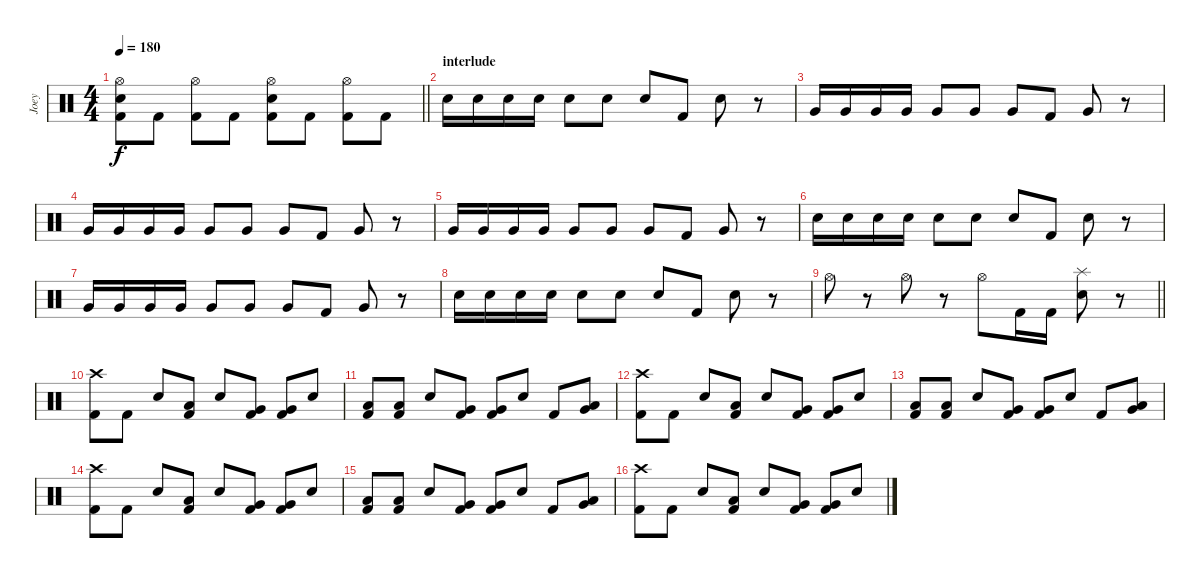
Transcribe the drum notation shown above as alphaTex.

\track ("Joey" "Joey") {instrument percussion}
\staff {score}
\articulation defaults
\ts (4 4)
\tempo 180
\clef neutral
\barLineRight lightlight
\ks c
("Hi-Hat (open)" "Electric Snare (hit)" "Kick (hit) 2").8{dy f} "Kick (hit) 2".8 ("Hi-Hat (open)" "Kick (hit) 2").8 "Kick (hit) 2".8 ("Hi-Hat (open)" "Electric Snare (hit)" "Kick (hit) 2").8 "Kick (hit) 2".8 ("Hi-Hat (open)" "Kick (hit) 2").8 "Kick (hit) 2".8 |
\section ("" "interlude")
"Electric Snare (hit)".16 "Electric Snare (hit)".16 "Electric Snare (hit)".16 "Electric Snare (hit)".16 "Electric Snare (hit)".8 "Electric Snare (hit)".8 "Electric Snare (hit)".8 "Kick (hit) 2".8 "Electric Snare (hit)".8 r.8 |
"Very Low Tom (hit)".16 "Very Low Tom (hit)".16 "Very Low Tom (hit)".16 "Very Low Tom (hit)".16 "Very Low Tom (hit)".8 "Very Low Tom (hit)".8 "Very Low Tom (hit)".8 "Kick (hit) 2".8 "Very Low Tom (hit)".8 r.8 |
"Very Low Tom (hit)".16 "Very Low Tom (hit)".16 "Very Low Tom (hit)".16 "Very Low Tom (hit)".16 "Very Low Tom (hit)".8 "Very Low Tom (hit)".8 "Very Low Tom (hit)".8 "Kick (hit) 2".8 "Very Low Tom (hit)".8 r.8 |
"Very Low Tom (hit)".16 "Very Low Tom (hit)".16 "Very Low Tom (hit)".16 "Very Low Tom (hit)".16 "Very Low Tom (hit)".8 "Very Low Tom (hit)".8 "Very Low Tom (hit)".8 "Kick (hit) 2".8 "Very Low Tom (hit)".8 r.8 |
"Electric Snare (hit)".16 "Electric Snare (hit)".16 "Electric Snare (hit)".16 "Electric Snare (hit)".16 "Electric Snare (hit)".8 "Electric Snare (hit)".8 "Electric Snare (hit)".8 "Kick (hit) 2".8 "Electric Snare (hit)".8 r.8 |
"Very Low Tom (hit)".16 "Very Low Tom (hit)".16 "Very Low Tom (hit)".16 "Very Low Tom (hit)".16 "Very Low Tom (hit)".8 "Very Low Tom (hit)".8 "Very Low Tom (hit)".8 "Kick (hit) 2".8 "Very Low Tom (hit)".8 r.8 |
"Electric Snare (hit)".16 "Electric Snare (hit)".16 "Electric Snare (hit)".16 "Electric Snare (hit)".16 "Electric Snare (hit)".8 "Electric Snare (hit)".8 "Electric Snare (hit)".8 "Kick (hit) 2".8 "Electric Snare (hit)".8 r.8 |
\barLineRight lightlight "Hi-Hat (open)".8
r.8 "Hi-Hat (open)".8 r.8 "Hi-Hat (open)".8 "Kick (hit) 2".16 "Kick (hit) 2".16 ("Splash (hit)" "Electric Snare (hit)").8 r.8 |
\section ("" "")
("Crash high (hit)" "Kick (hit) 2").8 "Kick (hit) 2".8 "Electric Snare (hit)".8 ("Low Tom (hit)" "Kick (hit) 2").8 "Electric Snare (hit)".8 ("Very Low Tom (hit)" "Kick (hit) 2").8 ("Very Low Tom (hit)" "Kick (hit) 2").8 "Electric Snare (hit)".8 |
("Low Tom (hit)" "Kick (hit) 2").8 ("Low Tom (hit)" "Kick (hit) 2").8 "Electric Snare (hit)".8 ("Very Low Tom (hit)" "Kick (hit) 2").8 ("Very Low Tom (hit)" "Kick (hit) 2").8 "Electric Snare (hit)".8 "Kick (hit) 2".8 ("Very Low Tom (hit)" "Low Floor Tom (hit)").8 |
("Crash high (hit)" "Kick (hit) 2").8 "Kick (hit) 2".8 "Electric Snare (hit)".8 ("Low Tom (hit)" "Kick (hit) 2").8 "Electric Snare (hit)".8 ("Very Low Tom (hit)" "Kick (hit) 2").8 ("Very Low Tom (hit)" "Kick (hit) 2").8 "Electric Snare (hit)".8 |
("Low Tom (hit)" "Kick (hit) 2").8 ("Low Tom (hit)" "Kick (hit) 2").8 "Electric Snare (hit)".8 ("Very Low Tom (hit)" "Kick (hit) 2").8 ("Very Low Tom (hit)" "Kick (hit) 2").8 "Electric Snare (hit)".8 "Kick (hit) 2".8 ("Very Low Tom (hit)" "Low Floor Tom (hit)").8 |
("Crash high (hit)" "Kick (hit) 2").8 "Kick (hit) 2".8 "Electric Snare (hit)".8 ("Low Tom (hit)" "Kick (hit) 2").8 "Electric Snare (hit)".8 ("Very Low Tom (hit)" "Kick (hit) 2").8 ("Very Low Tom (hit)" "Kick (hit) 2").8 "Electric Snare (hit)".8 |
("Low Tom (hit)" "Kick (hit) 2").8 ("Low Tom (hit)" "Kick (hit) 2").8 "Electric Snare (hit)".8 ("Very Low Tom (hit)" "Kick (hit) 2").8 ("Very Low Tom (hit)" "Kick (hit) 2").8 "Electric Snare (hit)".8 "Kick (hit) 2".8 ("Very Low Tom (hit)" "Low Floor Tom (hit)").8 |
("Crash high (hit)" "Kick (hit) 2").8 "Kick (hit) 2".8 "Electric Snare (hit)".8 ("Low Tom (hit)" "Kick (hit) 2").8 "Electric Snare (hit)".8 ("Very Low Tom (hit)" "Kick (hit) 2").8 ("Very Low Tom (hit)" "Kick (hit) 2").8 "Electric Snare (hit)".8
